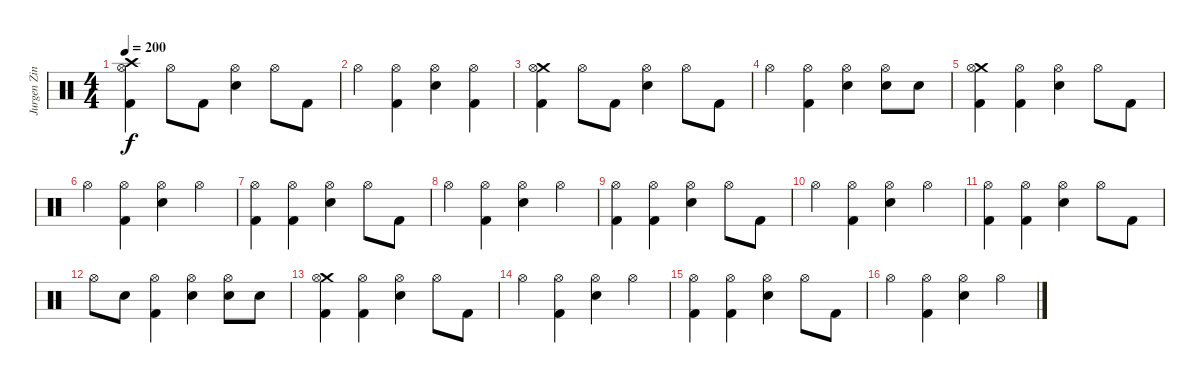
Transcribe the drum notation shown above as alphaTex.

\track ("Jurgen Zink" "Jurgen Zin") {instrument percussion}
\staff {score}
\articulation defaults
\ts (4 4)
\tempo 200
\clef neutral
\ks c
("Crash high (hit)" "Hi-Hat (open)" "Kick (hit) 2").4{dy f} "Hi-Hat (open)".8 "Kick (hit) 2".8 ("Hi-Hat (open)" "Electric Snare (hit)").4 "Hi-Hat (open)".8 "Kick (hit) 2".8 |
"Hi-Hat (open)".4 ("Hi-Hat (open)" "Kick (hit) 2").4 ("Hi-Hat (open)" "Electric Snare (hit)").4 ("Hi-Hat (open)" "Kick (hit) 2").4 |
("Crash medium (hit)" "Hi-Hat (open)" "Kick (hit) 2").4 "Hi-Hat (open)".8 "Kick (hit) 2".8 ("Hi-Hat (open)" "Electric Snare (hit)").4 "Hi-Hat (open)".8 "Kick (hit) 2".8 |
"Hi-Hat (open)".4 ("Hi-Hat (open)" "Kick (hit) 2").4 ("Hi-Hat (open)" "Electric Snare (hit)").4 ("Hi-Hat (open)" "Electric Snare (hit)").8 "Electric Snare (hit)".8 |
("Crash medium (hit)" "Hi-Hat (open)" "Kick (hit) 2").4 ("Hi-Hat (open)" "Kick (hit) 2").4 ("Hi-Hat (open)" "Electric Snare (hit)").4 "Hi-Hat (open)".8 "Kick (hit) 2".8 |
"Hi-Hat (open)".4 ("Hi-Hat (open)" "Kick (hit) 2").4 ("Hi-Hat (open)" "Electric Snare (hit)").4 "Hi-Hat (open)".4 |
("Hi-Hat (open)" "Kick (hit) 2").4 ("Hi-Hat (open)" "Kick (hit) 2").4 ("Hi-Hat (open)" "Electric Snare (hit)").4 "Hi-Hat (open)".8 "Kick (hit) 2".8 |
"Hi-Hat (open)".4 ("Hi-Hat (open)" "Kick (hit) 2").4 ("Hi-Hat (open)" "Electric Snare (hit)").4 "Hi-Hat (open)".4 |
("Hi-Hat (open)" "Kick (hit) 2").4 ("Hi-Hat (open)" "Kick (hit) 2").4 ("Hi-Hat (open)" "Electric Snare (hit)").4 "Hi-Hat (open)".8 "Kick (hit) 2".8 |
"Hi-Hat (open)".4 ("Hi-Hat (open)" "Kick (hit) 2").4 ("Hi-Hat (open)" "Electric Snare (hit)").4 "Hi-Hat (open)".4 |
("Hi-Hat (open)" "Kick (hit) 2").4 ("Hi-Hat (open)" "Kick (hit) 2").4 ("Hi-Hat (open)" "Electric Snare (hit)").4 "Hi-Hat (open)".8 "Kick (hit) 2".8 |
"Hi-Hat (open)".8 "Electric Snare (hit)".8 ("Hi-Hat (open)" "Kick (hit) 2").4 ("Hi-Hat (open)" "Electric Snare (hit)").4 ("Hi-Hat (open)" "Electric Snare (hit)").8 "Electric Snare (hit)".8 |
("Crash medium (hit)" "Hi-Hat (open)" "Kick (hit) 2").4 ("Hi-Hat (open)" "Kick (hit) 2").4 ("Hi-Hat (open)" "Electric Snare (hit)").4 "Hi-Hat (open)".8 "Kick (hit) 2".8 |
"Hi-Hat (open)".4 ("Hi-Hat (open)" "Kick (hit) 2").4 ("Hi-Hat (open)" "Electric Snare (hit)").4 "Hi-Hat (open)".4 |
("Hi-Hat (open)" "Kick (hit) 2").4 ("Hi-Hat (open)" "Kick (hit) 2").4 ("Hi-Hat (open)" "Electric Snare (hit)").4 "Hi-Hat (open)".8 "Kick (hit) 2".8 |
"Hi-Hat (open)".4 ("Hi-Hat (open)" "Kick (hit) 2").4 ("Hi-Hat (open)" "Electric Snare (hit)").4 "Hi-Hat (open)".4
